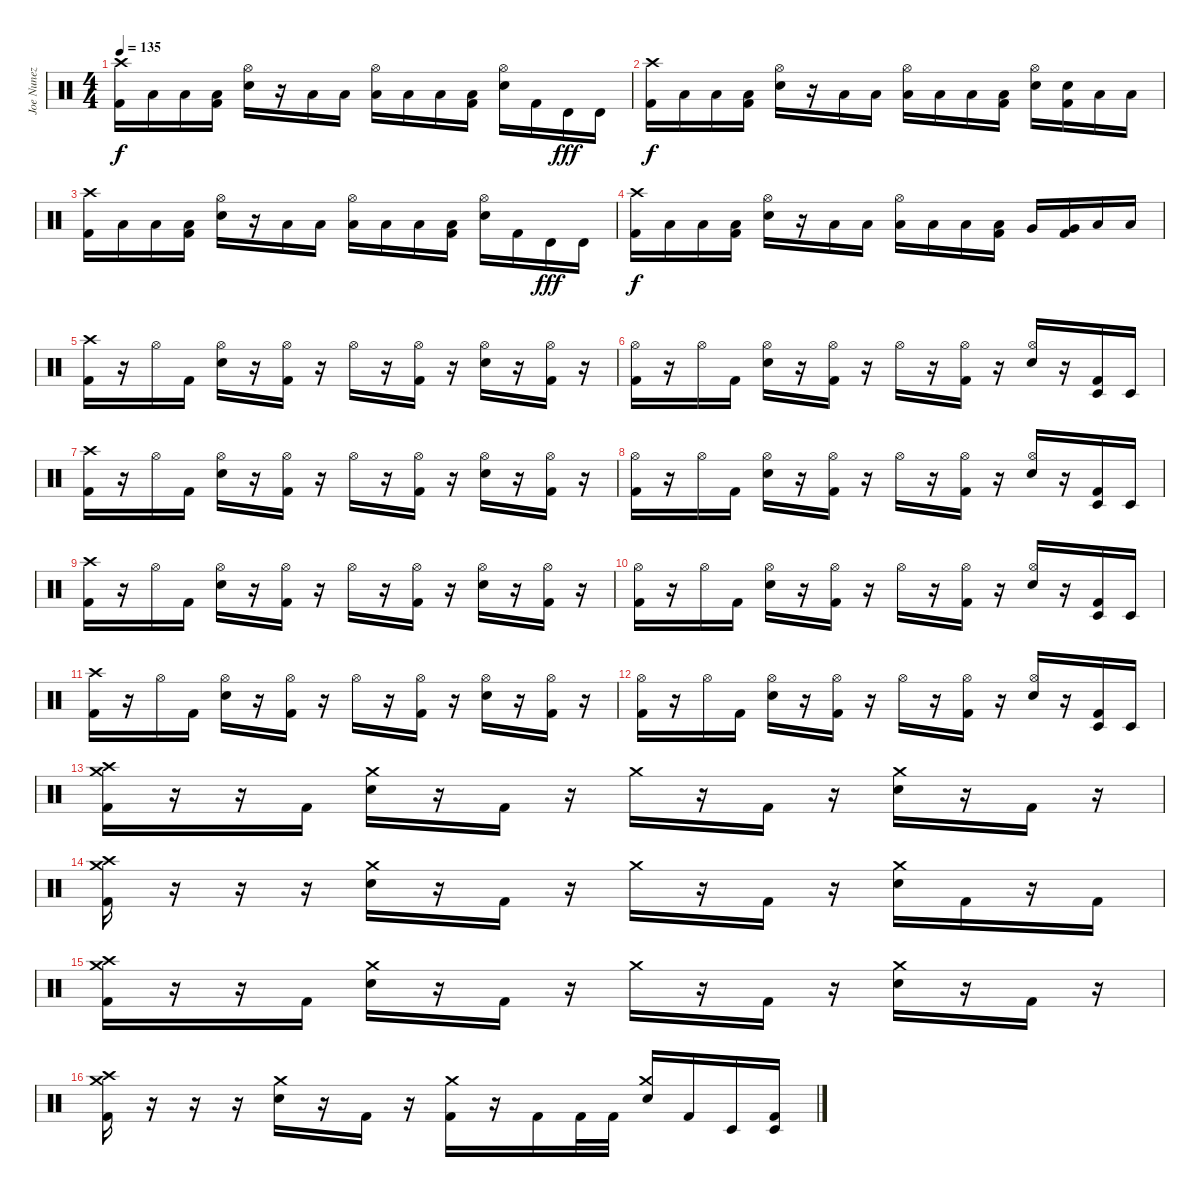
\track ("Joe Nunez" "Joe Nunez") {instrument percussion}
\staff {score}
\articulation defaults
\ts (4 4)
\tempo 135
\clef neutral
\ks c
("Crash high (hit)" "Kick (hit) 2").16{dy f} "Low Tom (hit)".16 "Low Tom (hit)".16 ("Low Tom (hit)" "Kick (hit) 2").16 ("Hi-Hat (open)" "Electric Snare (hit)").16 r.16 "Low Tom (hit)".16 "Low Tom (hit)".16 ("Hi-Hat (open)" "Low Tom (hit)").16 "Low Tom (hit)".16 "Low Tom (hit)".16 ("Low Tom (hit)" "Kick (hit) 2").16 ("Hi-Hat (open)" "Electric Snare (hit)").16 "Kick (hit) 2".16 "Timbale high (hit)".16{dy fff} "Timbale high (hit)".16 |
("Crash high (hit)" "Kick (hit) 2").16{dy f} "Low Tom (hit)".16 "Low Tom (hit)".16 ("Low Tom (hit)" "Kick (hit) 2").16 ("Hi-Hat (open)" "Electric Snare (hit)").16 r.16 "Low Tom (hit)".16 "Low Tom (hit)".16 ("Hi-Hat (open)" "Low Tom (hit)").16 "Low Tom (hit)".16 "Low Tom (hit)".16 ("Low Tom (hit)" "Kick (hit) 2").16 ("Hi-Hat (open)" "Electric Snare (hit)").16 ("Electric Snare (hit)" "Kick (hit) 2").16 "Low Tom (hit)".16 "Low Tom (hit)".16 |
("Crash high (hit)" "Kick (hit) 2").16 "Low Tom (hit)".16 "Low Tom (hit)".16 ("Low Tom (hit)" "Kick (hit) 2").16 ("Hi-Hat (open)" "Electric Snare (hit)").16 r.16 "Low Tom (hit)".16 "Low Tom (hit)".16 ("Hi-Hat (open)" "Low Tom (hit)").16 "Low Tom (hit)".16 "Low Tom (hit)".16 ("Low Tom (hit)" "Kick (hit) 2").16 ("Hi-Hat (open)" "Electric Snare (hit)").16 "Kick (hit) 2".16 "Timbale high (hit)".16{dy fff} "Timbale high (hit)".16 |
("Crash high (hit)" "Kick (hit) 2").16{dy f} "Low Tom (hit)".16 "Low Tom (hit)".16 ("Low Tom (hit)" "Kick (hit) 2").16 ("Hi-Hat (open)" "Electric Snare (hit)").16 r.16 "Low Tom (hit)".16 "Low Tom (hit)".16 ("Hi-Hat (open)" "Low Tom (hit)").16 "Low Tom (hit)".16 "Low Tom (hit)".16 ("Low Tom (hit)" "Kick (hit) 2").16 "Very Low Tom (hit)".16 ("Very Low Tom (hit)" "Kick (hit) 2").16 "Low Floor Tom (hit)".16 "Low Floor Tom (hit)".16 |
("Crash high (hit)" "Kick (hit) 2").16 r.16 "Hi-Hat (open)".16 "Kick (hit) 2".16 ("Hi-Hat (open)" "Electric Snare (hit)").16 r.16 ("Hi-Hat (open)" "Kick (hit) 2").16 r.16 "Hi-Hat (open)".16 r.16 ("Hi-Hat (open)" "Kick (hit) 2").16 r.16 ("Hi-Hat (open)" "Electric Snare (hit)").16 r.16 ("Hi-Hat (open)" "Kick (hit) 2").16 r.16 |
("Hi-Hat (open)" "Kick (hit) 2").16 r.16 "Hi-Hat (open)".16 "Kick (hit) 2".16 ("Hi-Hat (open)" "Electric Snare (hit)").16 r.16 ("Hi-Hat (open)" "Kick (hit) 2").16 r.16 "Hi-Hat (open)".16 r.16 ("Hi-Hat (open)" "Kick (hit) 2").16 r.16 ("Hi-Hat (open)" "Electric Snare (hit)").16 r.16 ("Timbale low (hit)" "Kick (hit) 2").16 "Timbale low (hit)".16 |
("Crash high (hit)" "Kick (hit) 2").16 r.16 "Hi-Hat (open)".16 "Kick (hit) 2".16 ("Hi-Hat (open)" "Electric Snare (hit)").16 r.16 ("Hi-Hat (open)" "Kick (hit) 2").16 r.16 "Hi-Hat (open)".16 r.16 ("Hi-Hat (open)" "Kick (hit) 2").16 r.16 ("Hi-Hat (open)" "Electric Snare (hit)").16 r.16 ("Hi-Hat (open)" "Kick (hit) 2").16 r.16 |
("Hi-Hat (open)" "Kick (hit) 2").16 r.16 "Hi-Hat (open)".16 "Kick (hit) 2".16 ("Hi-Hat (open)" "Electric Snare (hit)").16 r.16 ("Hi-Hat (open)" "Kick (hit) 2").16 r.16 "Hi-Hat (open)".16 r.16 ("Hi-Hat (open)" "Kick (hit) 2").16 r.16 ("Hi-Hat (open)" "Electric Snare (hit)").16 r.16 ("Timbale low (hit)" "Kick (hit) 2").16 "Timbale low (hit)".16 |
("Crash high (hit)" "Kick (hit) 2").16 r.16 "Hi-Hat (open)".16 "Kick (hit) 2".16 ("Hi-Hat (open)" "Electric Snare (hit)").16 r.16 ("Hi-Hat (open)" "Kick (hit) 2").16 r.16 "Hi-Hat (open)".16 r.16 ("Hi-Hat (open)" "Kick (hit) 2").16 r.16 ("Hi-Hat (open)" "Electric Snare (hit)").16 r.16 ("Hi-Hat (open)" "Kick (hit) 2").16 r.16 |
("Hi-Hat (open)" "Kick (hit) 2").16 r.16 "Hi-Hat (open)".16 "Kick (hit) 2".16 ("Hi-Hat (open)" "Electric Snare (hit)").16 r.16 ("Hi-Hat (open)" "Kick (hit) 2").16 r.16 "Hi-Hat (open)".16 r.16 ("Hi-Hat (open)" "Kick (hit) 2").16 r.16 ("Hi-Hat (open)" "Electric Snare (hit)").16 r.16 ("Timbale low (hit)" "Kick (hit) 2").16 "Timbale low (hit)".16 |
("Crash high (hit)" "Kick (hit) 2").16 r.16 "Hi-Hat (open)".16 "Kick (hit) 2".16 ("Hi-Hat (open)" "Electric Snare (hit)").16 r.16 ("Hi-Hat (open)" "Kick (hit) 2").16 r.16 "Hi-Hat (open)".16 r.16 ("Hi-Hat (open)" "Kick (hit) 2").16 r.16 ("Hi-Hat (open)" "Electric Snare (hit)").16 r.16 ("Hi-Hat (open)" "Kick (hit) 2").16 r.16 |
("Hi-Hat (open)" "Kick (hit) 2").16 r.16 "Hi-Hat (open)".16 "Kick (hit) 2".16 ("Hi-Hat (open)" "Electric Snare (hit)").16 r.16 ("Hi-Hat (open)" "Kick (hit) 2").16 r.16 "Hi-Hat (open)".16 r.16 ("Hi-Hat (open)" "Kick (hit) 2").16 r.16 ("Hi-Hat (open)" "Electric Snare (hit)").16 r.16 ("Timbale low (hit)" "Kick (hit) 2").16 "Timbale low (hit)".16 |
("Crash high (hit)" "Crash medium (hit)" "Kick (hit) 2").16 r.16 r.16 "Kick (hit) 2".16 ("Crash medium (hit)" "Electric Snare (hit)").16 r.16 "Kick (hit) 2".16 r.16 "Crash medium (hit)".16 r.16 "Kick (hit) 2".16 r.16 ("Crash medium (hit)" "Electric Snare (hit)").16 r.16 "Kick (hit) 2".16 r.16 |
("Crash high (hit)" "Crash medium (hit)" "Kick (hit) 2").16 r.16 r.16 r.16 ("Crash medium (hit)" "Electric Snare (hit)").16 r.16 "Kick (hit) 2".16 r.16 "Crash medium (hit)".16 r.16 "Kick (hit) 2".16 r.16 ("Crash medium (hit)" "Electric Snare (hit)").16 "Kick (hit) 2".16 r.16 "Kick (hit) 2".16 |
("Crash high (hit)" "Crash medium (hit)" "Kick (hit) 2").16 r.16 r.16 "Kick (hit) 2".16 ("Crash medium (hit)" "Electric Snare (hit)").16 r.16 "Kick (hit) 2".16 r.16 "Crash medium (hit)".16 r.16 "Kick (hit) 2".16 r.16 ("Crash medium (hit)" "Electric Snare (hit)").16 r.16 "Kick (hit) 2".16 r.16 |
("Crash high (hit)" "Crash medium (hit)" "Kick (hit) 2").16 r.16 r.16 r.16 ("Crash medium (hit)" "Electric Snare (hit)").16 r.16 "Kick (hit) 2".16 r.16 ("Crash medium (hit)" "Kick (hit) 2").16 r.16 "Kick (hit) 2".16 "Kick (hit) 2".32 "Kick (hit) 2".32 ("Crash medium (hit)" "Electric Snare (hit)").16 "Kick (hit) 2".16 "Timbale low (hit)".16 ("Timbale low (hit)" "Kick (hit) 2").16
